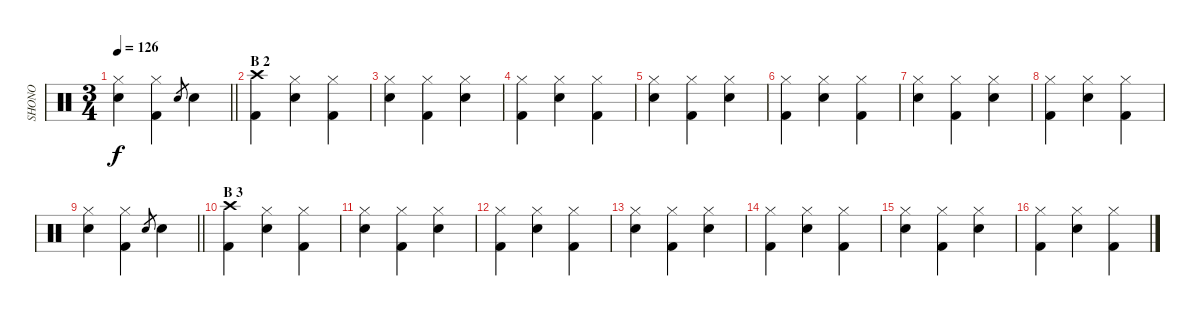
\track ("SHONO" "SHONO") {instrument percussion}
\staff {score}
\articulation defaults
\ts (3 4)
\tempo 126
\clef neutral
\barLineRight lightlight
\ks c
("Hi-Hat (closed)" "Snare (hit) 2").4{dy f} ("Hi-Hat (closed)" "Kick (hit) 2").4 "Snare (hit) 2".8{gr} "Snare (hit) 2".4 |
\section ("" "B 2")
("Crash high (hit)" "Kick (hit) 2").4 ("Hi-Hat (closed)" "Snare (hit) 2").4 ("Hi-Hat (closed)" "Kick (hit) 2").4 |
("Hi-Hat (closed)" "Snare (hit) 2").4 ("Hi-Hat (closed)" "Kick (hit) 2").4 ("Hi-Hat (closed)" "Snare (hit) 2").4 |
("Hi-Hat (closed)" "Kick (hit) 2").4 ("Hi-Hat (closed)" "Snare (hit) 2").4 ("Hi-Hat (closed)" "Kick (hit) 2").4 |
("Hi-Hat (closed)" "Snare (hit) 2").4 ("Hi-Hat (closed)" "Kick (hit) 2").4 ("Hi-Hat (closed)" "Snare (hit) 2").4 |
("Hi-Hat (closed)" "Kick (hit) 2").4 ("Hi-Hat (closed)" "Snare (hit) 2").4 ("Hi-Hat (closed)" "Kick (hit) 2").4 |
("Hi-Hat (closed)" "Snare (hit) 2").4 ("Hi-Hat (closed)" "Kick (hit) 2").4 ("Hi-Hat (closed)" "Snare (hit) 2").4 |
("Hi-Hat (closed)" "Kick (hit) 2").4 ("Hi-Hat (closed)" "Snare (hit) 2").4 ("Hi-Hat (closed)" "Kick (hit) 2").4 |
\barLineRight lightlight
("Hi-Hat (closed)" "Snare (hit) 2").4 ("Hi-Hat (closed)" "Kick (hit) 2").4 "Snare (hit) 2".8{gr} "Snare (hit) 2".4 |
\section ("" "B 3")
("Crash high (hit)" "Kick (hit) 2").4 ("Hi-Hat (closed)" "Snare (hit) 2").4 ("Hi-Hat (closed)" "Kick (hit) 2").4 |
("Hi-Hat (closed)" "Snare (hit) 2").4 ("Hi-Hat (closed)" "Kick (hit) 2").4 ("Hi-Hat (closed)" "Snare (hit) 2").4 |
("Hi-Hat (closed)" "Kick (hit) 2").4 ("Hi-Hat (closed)" "Snare (hit) 2").4 ("Hi-Hat (closed)" "Kick (hit) 2").4 |
("Hi-Hat (closed)" "Snare (hit) 2").4 ("Hi-Hat (closed)" "Kick (hit) 2").4 ("Hi-Hat (closed)" "Snare (hit) 2").4 |
("Hi-Hat (closed)" "Kick (hit) 2").4 ("Hi-Hat (closed)" "Snare (hit) 2").4 ("Hi-Hat (closed)" "Kick (hit) 2").4 |
("Hi-Hat (closed)" "Snare (hit) 2").4 ("Hi-Hat (closed)" "Kick (hit) 2").4 ("Hi-Hat (closed)" "Snare (hit) 2").4 |
("Hi-Hat (closed)" "Kick (hit) 2").4 ("Hi-Hat (closed)" "Snare (hit) 2").4 ("Hi-Hat (closed)" "Kick (hit) 2").4
